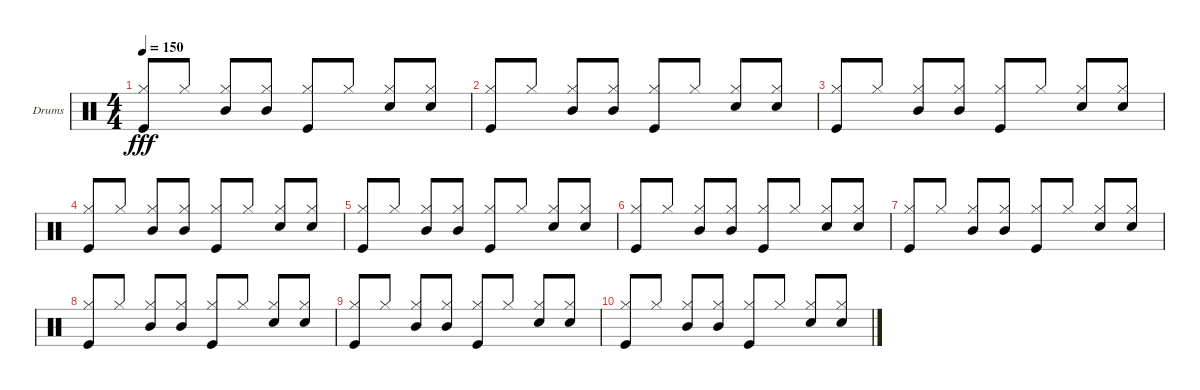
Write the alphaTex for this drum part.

\defaultSystemsLayout 4
\bracketExtendMode groupsimilarinstruments
\firstSystemTrackNameOrientation horizontal
\otherSystemsTrackNameOrientation horizontal
\track ("Drumkit" "Drums") {instrument percussion}
\staff {score}
\articulation defaults
\ts (4 4)
\tempo 150
\clef neutral
\ks c
("Kick (hit)" "Hi-Hat (closed)").8{dy fff beam invert} "Hi-Hat (closed)".8 ("Mid Tom (hit)" "Hi-Hat (closed)").8{beam invert} ("Mid Tom (hit)" "Hi-Hat (closed)").8 ("Hi-Hat (closed)" "Kick (hit)").8{beam invert} "Hi-Hat (closed)".8 ("Snare (hit) 2" "Hi-Hat (closed)").8{beam invert} ("Snare (hit) 2" "Hi-Hat (closed)").8 |
("Kick (hit)" "Hi-Hat (closed)").8{beam invert} "Hi-Hat (closed)".8 ("Mid Tom (hit)" "Hi-Hat (closed)").8{beam invert} ("Mid Tom (hit)" "Hi-Hat (closed)").8 ("Hi-Hat (closed)" "Kick (hit)").8{beam invert} "Hi-Hat (closed)".8 ("Snare (hit) 2" "Hi-Hat (closed)").8{beam invert} ("Snare (hit) 2" "Hi-Hat (closed)").8 |
("Kick (hit)" "Hi-Hat (closed)").8{beam invert} "Hi-Hat (closed)".8 ("Mid Tom (hit)" "Hi-Hat (closed)").8{beam invert} ("Mid Tom (hit)" "Hi-Hat (closed)").8 ("Hi-Hat (closed)" "Kick (hit)").8{beam invert} "Hi-Hat (closed)".8 ("Snare (hit) 2" "Hi-Hat (closed)").8{beam invert} ("Snare (hit) 2" "Hi-Hat (closed)").8 |
("Kick (hit)" "Hi-Hat (closed)").8{beam invert} "Hi-Hat (closed)".8 ("Mid Tom (hit)" "Hi-Hat (closed)").8{beam invert} ("Mid Tom (hit)" "Hi-Hat (closed)").8 ("Hi-Hat (closed)" "Kick (hit)").8{beam invert} "Hi-Hat (closed)".8 ("Snare (hit) 2" "Hi-Hat (closed)").8{beam invert} ("Snare (hit) 2" "Hi-Hat (closed)").8 |
("Kick (hit)" "Hi-Hat (closed)").8{beam invert} "Hi-Hat (closed)".8 ("Mid Tom (hit)" "Hi-Hat (closed)").8{beam invert} ("Mid Tom (hit)" "Hi-Hat (closed)").8 ("Hi-Hat (closed)" "Kick (hit)").8{beam invert} "Hi-Hat (closed)".8 ("Snare (hit) 2" "Hi-Hat (closed)").8{beam invert} ("Snare (hit) 2" "Hi-Hat (closed)").8 |
("Kick (hit)" "Hi-Hat (closed)").8{beam invert} "Hi-Hat (closed)".8 ("Mid Tom (hit)" "Hi-Hat (closed)").8{beam invert} ("Mid Tom (hit)" "Hi-Hat (closed)").8 ("Hi-Hat (closed)" "Kick (hit)").8{beam invert} "Hi-Hat (closed)".8 ("Snare (hit) 2" "Hi-Hat (closed)").8{beam invert} ("Snare (hit) 2" "Hi-Hat (closed)").8 |
("Kick (hit)" "Hi-Hat (closed)").8{beam invert} "Hi-Hat (closed)".8 ("Mid Tom (hit)" "Hi-Hat (closed)").8{beam invert} ("Mid Tom (hit)" "Hi-Hat (closed)").8 ("Hi-Hat (closed)" "Kick (hit)").8{beam invert} "Hi-Hat (closed)".8 ("Snare (hit) 2" "Hi-Hat (closed)").8{beam invert} ("Snare (hit) 2" "Hi-Hat (closed)").8 |
("Kick (hit)" "Hi-Hat (closed)").8{beam invert} "Hi-Hat (closed)".8 ("Mid Tom (hit)" "Hi-Hat (closed)").8{beam invert} ("Mid Tom (hit)" "Hi-Hat (closed)").8 ("Hi-Hat (closed)" "Kick (hit)").8{beam invert} "Hi-Hat (closed)".8 ("Snare (hit) 2" "Hi-Hat (closed)").8{beam invert} ("Snare (hit) 2" "Hi-Hat (closed)").8 |
("Kick (hit)" "Hi-Hat (closed)").8{beam invert} "Hi-Hat (closed)".8 ("Mid Tom (hit)" "Hi-Hat (closed)").8{beam invert} ("Mid Tom (hit)" "Hi-Hat (closed)").8 ("Hi-Hat (closed)" "Kick (hit)").8{beam invert} "Hi-Hat (closed)".8 ("Snare (hit) 2" "Hi-Hat (closed)").8{beam invert} ("Snare (hit) 2" "Hi-Hat (closed)").8 |
("Kick (hit)" "Hi-Hat (closed)").8{beam invert} "Hi-Hat (closed)".8 ("Mid Tom (hit)" "Hi-Hat (closed)").8{beam invert} ("Mid Tom (hit)" "Hi-Hat (closed)").8 ("Hi-Hat (closed)" "Kick (hit)").8{beam invert} "Hi-Hat (closed)".8 ("Snare (hit) 2" "Hi-Hat (closed)").8{beam invert} ("Snare (hit) 2" "Hi-Hat (closed)").8
